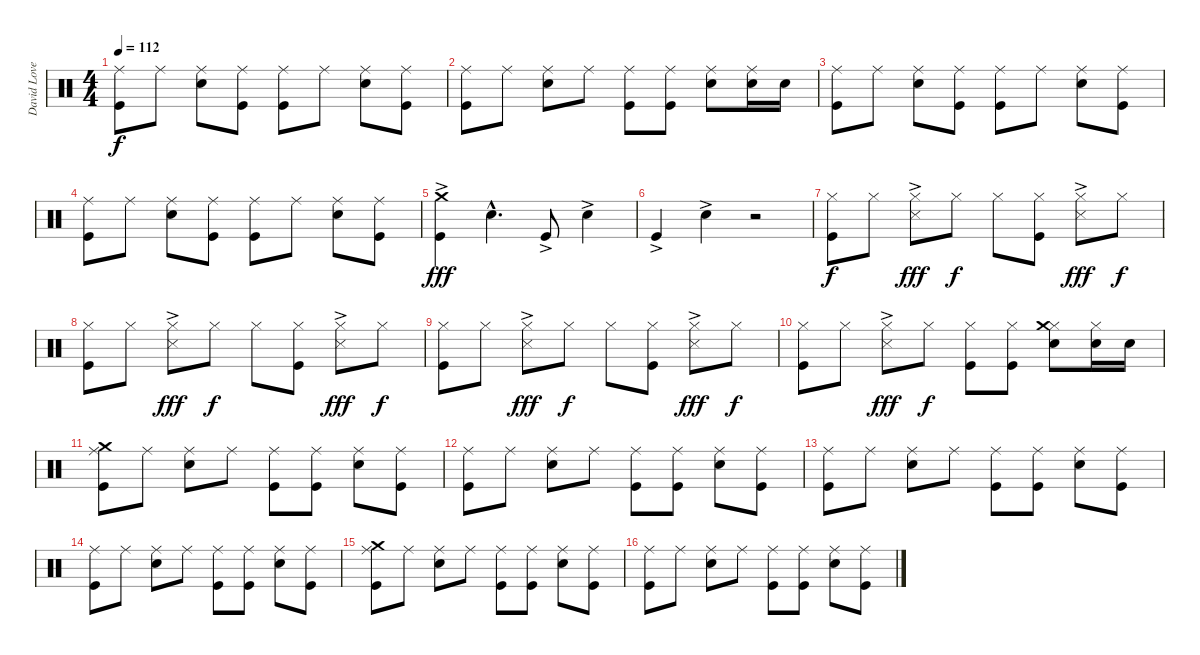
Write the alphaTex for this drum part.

\track ("David Lovering" "David Love") {instrument percussion}
\staff {score}
\articulation defaults
\ts (4 4)
\tempo 112
\clef neutral
\ks c
("Ride (middle)" "Kick (hit)").8{dy f} "Ride (middle)".8 ("Ride (middle)" "Snare (hit) 2").8 ("Ride (middle)" "Kick (hit)").8 ("Ride (middle)" "Kick (hit)").8 "Ride (middle)".8 ("Ride (middle)" "Snare (hit) 2").8 ("Ride (middle)" "Kick (hit)").8 |
("Ride (middle)" "Kick (hit)").8 "Ride (middle)".8 ("Ride (middle)" "Snare (hit) 2").8 "Ride (middle)".8 ("Ride (middle)" "Kick (hit)").8 ("Ride (middle)" "Kick (hit)").8 ("Ride (middle)" "Snare (hit) 2").8 ("Ride (middle)" "Snare (hit) 2").16 "Snare (hit) 2".16 |
("Ride (middle)" "Kick (hit)").8 "Ride (middle)".8 ("Ride (middle)" "Snare (hit) 2").8 ("Ride (middle)" "Kick (hit)").8 ("Ride (middle)" "Kick (hit)").8 "Ride (middle)".8 ("Ride (middle)" "Snare (hit) 2").8 ("Ride (middle)" "Kick (hit)").8 |
("Ride (middle)" "Kick (hit)").8 "Ride (middle)".8 ("Ride (middle)" "Snare (hit) 2").8 ("Ride (middle)" "Kick (hit)").8 ("Ride (middle)" "Kick (hit)").8 "Ride (middle)".8 ("Ride (middle)" "Snare (hit) 2").8 ("Ride (middle)" "Kick (hit)").8 |
("Crash medium (hit)"{ac} "Kick (hit)").4{dy fff} "Snare (hit) 2"{hac}.4{d} "Kick (hit)"{ac}.8 "Snare (hit) 2"{ac}.4 |
"Kick (hit)"{ac}.4 "Snare (hit) 2"{ac}.4 r.2 |
\section ("" "")
("Hi-Hat (closed)" "Kick (hit)").8{dy f} "Hi-Hat (closed)".8 ("Hi-Hat (closed)" "Snare (side stick) 3"{ac}).8{dy fff} "Hi-Hat (closed)".8{dy f} "Hi-Hat (closed)".8 ("Hi-Hat (closed)" "Kick (hit)").8 ("Hi-Hat (closed)" "Snare (side stick) 3"{ac}).8{dy fff} "Hi-Hat (closed)".8{dy f} |
("Hi-Hat (closed)" "Kick (hit)").8 "Hi-Hat (closed)".8 ("Hi-Hat (closed)" "Snare (side stick) 3"{ac}).8{dy fff} "Hi-Hat (closed)".8{dy f} "Hi-Hat (closed)".8 ("Hi-Hat (closed)" "Kick (hit)").8 ("Hi-Hat (closed)" "Snare (side stick) 3"{ac}).8{dy fff} "Hi-Hat (closed)".8{dy f} |
("Hi-Hat (closed)" "Kick (hit)").8 "Hi-Hat (closed)".8 ("Hi-Hat (closed)" "Snare (side stick) 3"{ac}).8{dy fff} "Hi-Hat (closed)".8{dy f} "Hi-Hat (closed)".8 ("Hi-Hat (closed)" "Kick (hit)").8 ("Hi-Hat (closed)" "Snare (side stick) 3"{ac}).8{dy fff} "Hi-Hat (closed)".8{dy f} |
("Hi-Hat (closed)" "Kick (hit)").8 "Hi-Hat (closed)".8 ("Hi-Hat (closed)" "Snare (side stick) 3"{ac}).8{dy fff} "Hi-Hat (closed)".8{dy f} ("Hi-Hat (closed)" "Kick (hit)").8 ("Hi-Hat (closed)" "Kick (hit)").8 ("Hi-Hat (closed)" "Crash medium (hit)" "Snare (hit) 2").8 ("Hi-Hat (closed)" "Snare (hit) 2").16 "Snare (hit) 2".16 |
("Ride (middle)" "Crash medium (hit)" "Kick (hit)").8 "Ride (middle)".8 ("Ride (middle)" "Snare (hit) 2").8 "Ride (middle)".8 ("Ride (middle)" "Kick (hit)").8 ("Ride (middle)" "Kick (hit)").8 ("Ride (middle)" "Snare (hit) 2").8 ("Ride (middle)" "Kick (hit)").8 |
("Ride (middle)" "Kick (hit)").8 "Ride (middle)".8 ("Ride (middle)" "Snare (hit) 2").8 "Ride (middle)".8 ("Ride (middle)" "Kick (hit)").8 ("Ride (middle)" "Kick (hit)").8 ("Ride (middle)" "Snare (hit) 2").8 ("Ride (middle)" "Kick (hit)").8 |
("Ride (middle)" "Kick (hit)").8 "Ride (middle)".8 ("Ride (middle)" "Snare (hit) 2").8 "Ride (middle)".8 ("Ride (middle)" "Kick (hit)").8 ("Ride (middle)" "Kick (hit)").8 ("Ride (middle)" "Snare (hit) 2").8 ("Ride (middle)" "Kick (hit)").8 |
("Ride (middle)" "Kick (hit)").8 "Ride (middle)".8 ("Ride (middle)" "Snare (hit) 2").8 "Ride (middle)".8 ("Ride (middle)" "Kick (hit)").8 ("Ride (middle)" "Kick (hit)").8 ("Ride (middle)" "Snare (hit) 2").8 ("Ride (middle)" "Kick (hit)").8 |
\section ("" "")
("Ride (middle)" "Crash medium (hit)" "Kick (hit)").8 "Ride (middle)".8 ("Ride (middle)" "Snare (hit) 2").8 "Ride (middle)".8 ("Ride (middle)" "Kick (hit)").8 ("Ride (middle)" "Kick (hit)").8 ("Ride (middle)" "Snare (hit) 2").8 ("Ride (middle)" "Kick (hit)").8 |
("Ride (middle)" "Kick (hit)").8 "Ride (middle)".8 ("Ride (middle)" "Snare (hit) 2").8 "Ride (middle)".8 ("Ride (middle)" "Kick (hit)").8 ("Ride (middle)" "Kick (hit)").8 ("Ride (middle)" "Snare (hit) 2").8 ("Ride (middle)" "Kick (hit)").8
